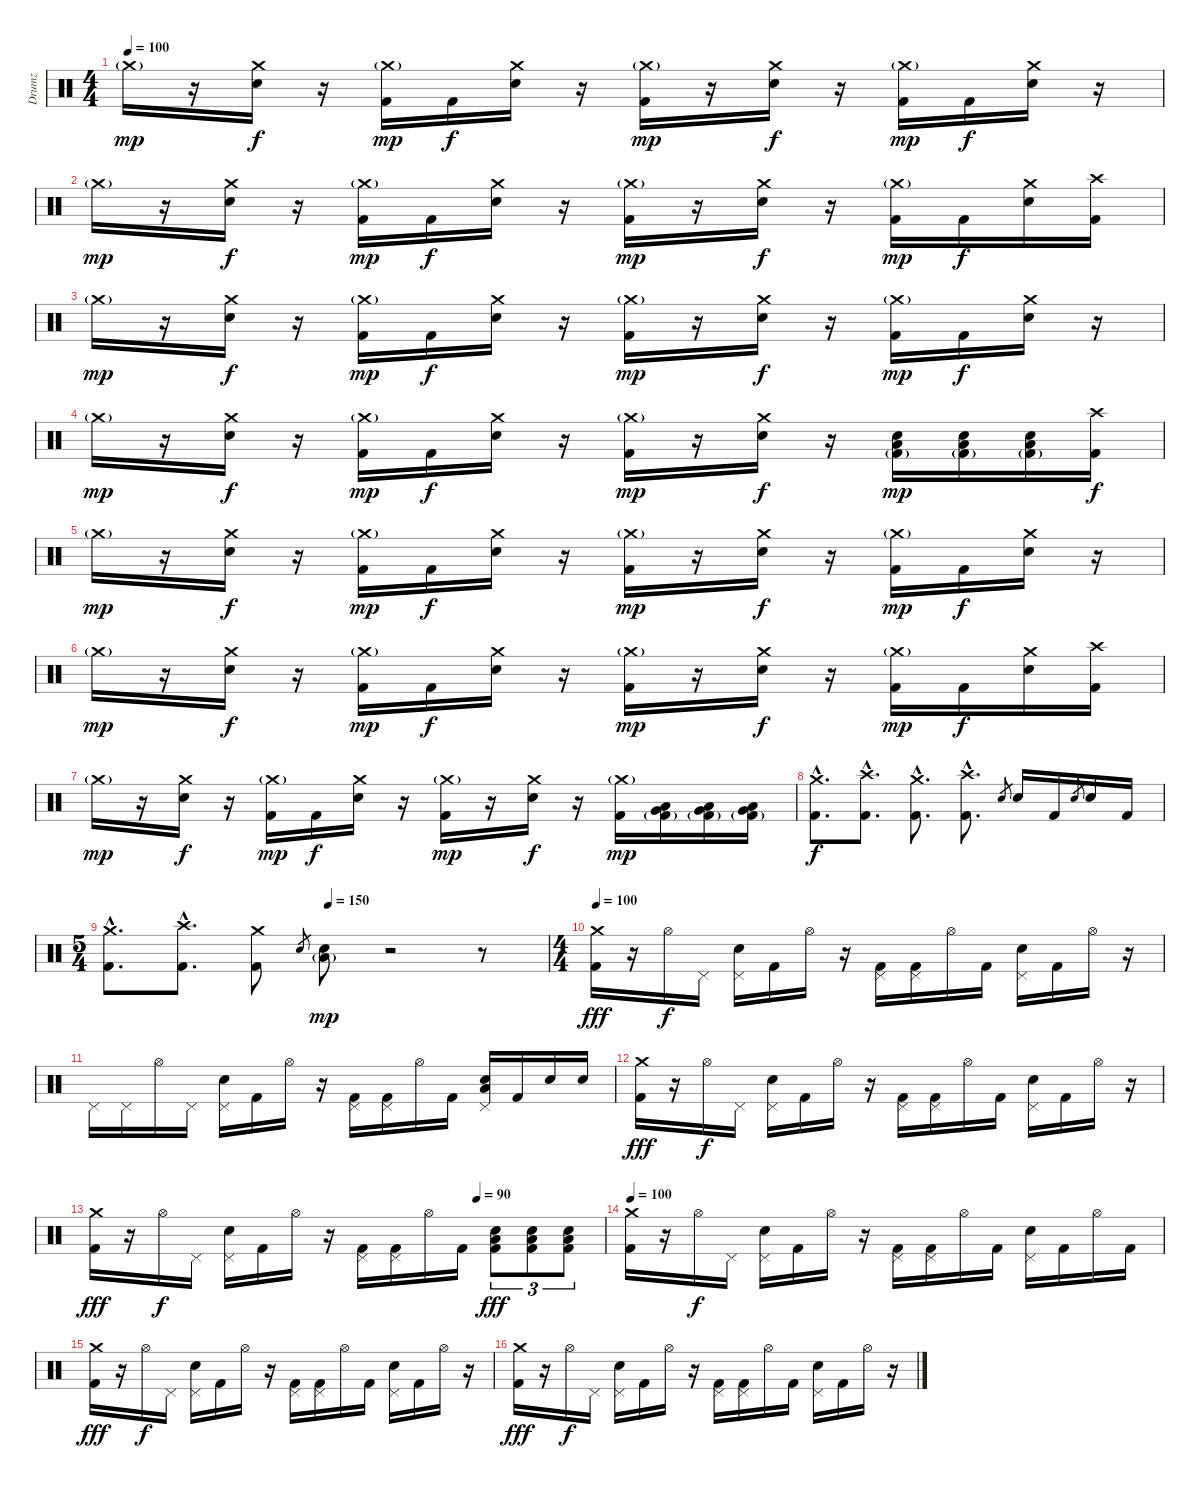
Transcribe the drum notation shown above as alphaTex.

\track ("Drumz" "Drumz") {instrument percussion}
\staff {score}
\articulation defaults
\ts (4 4)
\tempo 100
\clef neutral
\ks c "Crash medium (hit)"{g}.16{dy mp}
r.16 ("Crash medium (hit)" "Electric Snare (hit)").16{dy f} r.16 ("Crash medium (hit)"{g} "Kick (hit) 2").16{dy mp} "Kick (hit) 2".16{dy f} ("Crash medium (hit)" "Electric Snare (hit)").16 r.16 ("Crash medium (hit)"{g} "Kick (hit) 2").16{dy mp} r.16 ("Crash medium (hit)" "Electric Snare (hit)").16{dy f} r.16 ("Crash medium (hit)"{g} "Kick (hit) 2").16{dy mp} "Kick (hit) 2".16{dy f} ("Crash medium (hit)" "Electric Snare (hit)").16 r.16 |
"Crash medium (hit)"{g}.16{dy mp} r.16 ("Crash medium (hit)" "Electric Snare (hit)").16{dy f} r.16 ("Crash medium (hit)"{g} "Kick (hit) 2").16{dy mp} "Kick (hit) 2".16{dy f} ("Crash medium (hit)" "Electric Snare (hit)").16 r.16 ("Crash medium (hit)"{g} "Kick (hit) 2").16{dy mp} r.16 ("Crash medium (hit)" "Electric Snare (hit)").16{dy f} r.16 ("Crash medium (hit)"{g} "Kick (hit) 2").16{dy mp} "Kick (hit) 2".16{dy f} ("Crash medium (hit)" "Electric Snare (hit)").16 ("Crash high (hit)" "Kick (hit) 2").16 |
"Crash medium (hit)"{g}.16{dy mp} r.16 ("Crash medium (hit)" "Electric Snare (hit)").16{dy f} r.16 ("Crash medium (hit)"{g} "Kick (hit) 2").16{dy mp} "Kick (hit) 2".16{dy f} ("Crash medium (hit)" "Electric Snare (hit)").16 r.16 ("Crash medium (hit)"{g} "Kick (hit) 2").16{dy mp} r.16 ("Crash medium (hit)" "Electric Snare (hit)").16{dy f} r.16 ("Crash medium (hit)"{g} "Kick (hit) 2").16{dy mp} "Kick (hit) 2".16{dy f} ("Crash medium (hit)" "Electric Snare (hit)").16 r.16 |
"Crash medium (hit)"{g}.16{dy mp} r.16 ("Crash medium (hit)" "Electric Snare (hit)").16{dy f} r.16 ("Crash medium (hit)"{g} "Kick (hit) 2").16{dy mp} "Kick (hit) 2".16{dy f} ("Crash medium (hit)" "Electric Snare (hit)").16 r.16 ("Crash medium (hit)"{g} "Kick (hit) 2").16{dy mp} r.16 ("Crash medium (hit)" "Electric Snare (hit)").16{dy f} r.16 ("Electric Snare (hit)" "Low Floor Tom (hit)" "Kick (hit) 2"{g}).16{dy mp} ("Electric Snare (hit)" "Low Floor Tom (hit)" "Kick (hit) 2"{g}).16 ("Electric Snare (hit)" "Low Floor Tom (hit)" "Kick (hit) 2"{g}).16 ("Crash high (hit)" "Kick (hit) 2").16{dy f} |
"Crash medium (hit)"{g}.16{dy mp} r.16 ("Crash medium (hit)" "Electric Snare (hit)").16{dy f} r.16 ("Crash medium (hit)"{g} "Kick (hit) 2").16{dy mp} "Kick (hit) 2".16{dy f} ("Crash medium (hit)" "Electric Snare (hit)").16 r.16 ("Crash medium (hit)"{g} "Kick (hit) 2").16{dy mp} r.16 ("Crash medium (hit)" "Electric Snare (hit)").16{dy f} r.16 ("Crash medium (hit)"{g} "Kick (hit) 2").16{dy mp} "Kick (hit) 2".16{dy f} ("Crash medium (hit)" "Electric Snare (hit)").16 r.16 |
"Crash medium (hit)"{g}.16{dy mp} r.16 ("Crash medium (hit)" "Electric Snare (hit)").16{dy f} r.16 ("Crash medium (hit)"{g} "Kick (hit) 2").16{dy mp} "Kick (hit) 2".16{dy f} ("Crash medium (hit)" "Electric Snare (hit)").16 r.16 ("Crash medium (hit)"{g} "Kick (hit) 2").16{dy mp} r.16 ("Crash medium (hit)" "Electric Snare (hit)").16{dy f} r.16 ("Crash medium (hit)"{g} "Kick (hit) 2").16{dy mp} "Kick (hit) 2".16{dy f} ("Crash medium (hit)" "Electric Snare (hit)").16 ("Crash high (hit)" "Kick (hit) 2").16 |
"Crash medium (hit)"{g}.16{dy mp} r.16 ("Crash medium (hit)" "Electric Snare (hit)").16{dy f} r.16 ("Crash medium (hit)"{g} "Kick (hit) 2").16{dy mp} "Kick (hit) 2".16{dy f} ("Crash medium (hit)" "Electric Snare (hit)").16 r.16 ("Crash medium (hit)"{g} "Kick (hit) 2").16{dy mp} r.16 ("Crash medium (hit)" "Electric Snare (hit)").16{dy f} r.16 ("Crash medium (hit)"{g} "Kick (hit) 2").16{dy mp} ("Low Floor Tom (hit)" "Very Low Tom (hit)" "Kick (hit) 2"{g}).16 ("Low Floor Tom (hit)" "Very Low Tom (hit)" "Kick (hit) 2"{g}).16 ("Low Floor Tom (hit)" "Very Low Tom (hit)" "Kick (hit) 2"{g}).16 |
("Crash medium (hit)"{hac} "Kick (hit) 2"{hac}).8{d dy f} ("Crash high (hit)"{hac} "Kick (hit) 2"{hac}).8{d} ("Crash medium (hit)"{hac} "Kick (hit) 2"{hac}).8{d} ("Crash high (hit)"{hac} "Kick (hit) 2"{hac}).8{d} "Electric Snare (hit)".8{gr} "Electric Snare (hit)".16 "Kick (hit) 2".16 "Electric Snare (hit)".8{gr} "Electric Snare (hit)".16 "Kick (hit) 2".16 |
\ts (5 4)
\tempo (150 0.5)
("Crash medium (hit)"{hac} "Kick (hit) 2"{hac}).8{d} ("Crash high (hit)"{hac} "Kick (hit) 2"{hac}).8{d} ("Crash medium (hit)" "Kick (hit) 2").8 "Electric Snare (hit)".8{gr} ("Electric Snare (hit)" "Low Tom (hit)"{g}).8{dy mp} r.2 r.8 |
\ts (4 4)
\tempo 100
("Crash medium (hit)" "Kick (hit) 2").16{dy fff} r.16 "Hi-Hat (open)".16{dy f} "Pedal Hi-Hat (hit)".16 ("Pedal Hi-Hat (hit)" "Electric Snare (hit)").16 "Kick (hit) 2".16 "Hi-Hat (open)".16 r.16 ("Pedal Hi-Hat (hit)" "Kick (hit) 2").16 ("Pedal Hi-Hat (hit)" "Kick (hit) 2").16 "Hi-Hat (open)".16 "Kick (hit) 2".16 ("Pedal Hi-Hat (hit)" "Electric Snare (hit)").16 "Kick (hit) 2".16 "Hi-Hat (open)".16 r.16 |
"Pedal Hi-Hat (hit)".16 "Pedal Hi-Hat (hit)".16 "Hi-Hat (open)".16 "Pedal Hi-Hat (hit)".16 ("Pedal Hi-Hat (hit)" "Electric Snare (hit)").16 "Kick (hit) 2".16 "Hi-Hat (open)".16 r.16 ("Pedal Hi-Hat (hit)" "Kick (hit) 2").16 ("Pedal Hi-Hat (hit)" "Kick (hit) 2").16 "Hi-Hat (open)".16 "Kick (hit) 2".16 ("Pedal Hi-Hat (hit)" "Electric Snare (hit)" "Low Floor Tom (hit)").16 "Kick (hit) 2".16 "Electric Snare (hit)".16 "Electric Snare (hit)".16 |
("Crash medium (hit)" "Kick (hit) 2").16{dy fff} r.16 "Hi-Hat (open)".16{dy f} "Pedal Hi-Hat (hit)".16 ("Pedal Hi-Hat (hit)" "Electric Snare (hit)").16 "Kick (hit) 2".16 "Hi-Hat (open)".16 r.16 ("Pedal Hi-Hat (hit)" "Kick (hit) 2").16 ("Pedal Hi-Hat (hit)" "Kick (hit) 2").16 "Hi-Hat (open)".16 "Kick (hit) 2".16 ("Pedal Hi-Hat (hit)" "Electric Snare (hit)").16 "Kick (hit) 2".16 "Hi-Hat (open)".16 r.16 |
\tempo (90 0.75)
("Crash medium (hit)" "Kick (hit) 2").16{dy fff} r.16 "Hi-Hat (open)".16{dy f} "Pedal Hi-Hat (hit)".16 ("Pedal Hi-Hat (hit)" "Electric Snare (hit)").16 "Kick (hit) 2".16 "Hi-Hat (open)".16 r.16 ("Pedal Hi-Hat (hit)" "Kick (hit) 2").16 ("Pedal Hi-Hat (hit)" "Kick (hit) 2").16 "Hi-Hat (open)".16 "Kick (hit) 2".16 ("Low Floor Tom (hit)" "Electric Snare (hit)" "Kick (hit) 2").8{tu (3 2) dy fff} ("Low Floor Tom (hit)" "Electric Snare (hit)" "Kick (hit) 2").8{tu (3 2)} ("Low Floor Tom (hit)" "Electric Snare (hit)" "Kick (hit) 2").8{tu (3 2)} |
\tempo 100
("Crash medium (hit)" "Kick (hit) 2").16 r.16 "Hi-Hat (open)".16{dy f} "Pedal Hi-Hat (hit)".16 ("Pedal Hi-Hat (hit)" "Electric Snare (hit)").16 "Kick (hit) 2".16 "Hi-Hat (open)".16 r.16 ("Pedal Hi-Hat (hit)" "Kick (hit) 2").16 ("Pedal Hi-Hat (hit)" "Kick (hit) 2").16 "Hi-Hat (open)".16 "Kick (hit) 2".16 ("Pedal Hi-Hat (hit)" "Electric Snare (hit)").16 "Kick (hit) 2".16 "Hi-Hat (open)".16 "Kick (hit) 2".16 |
("Crash medium (hit)" "Kick (hit) 2").16{dy fff} r.16 "Hi-Hat (open)".16{dy f} "Pedal Hi-Hat (hit)".16 ("Pedal Hi-Hat (hit)" "Electric Snare (hit)").16 "Kick (hit) 2".16 "Hi-Hat (open)".16 r.16 ("Pedal Hi-Hat (hit)" "Kick (hit) 2").16 ("Pedal Hi-Hat (hit)" "Kick (hit) 2").16 "Hi-Hat (open)".16 "Kick (hit) 2".16 ("Pedal Hi-Hat (hit)" "Electric Snare (hit)").16 "Kick (hit) 2".16 "Hi-Hat (open)".16 r.16 |
("Crash medium (hit)" "Kick (hit) 2").16{dy fff} r.16 "Hi-Hat (open)".16{dy f} "Pedal Hi-Hat (hit)".16 ("Pedal Hi-Hat (hit)" "Electric Snare (hit)").16 "Kick (hit) 2".16 "Hi-Hat (open)".16 r.16 ("Pedal Hi-Hat (hit)" "Kick (hit) 2").16 ("Pedal Hi-Hat (hit)" "Kick (hit) 2").16 "Hi-Hat (open)".16 "Kick (hit) 2".16 ("Pedal Hi-Hat (hit)" "Electric Snare (hit)").16 "Kick (hit) 2".16 "Hi-Hat (open)".16 r.16
